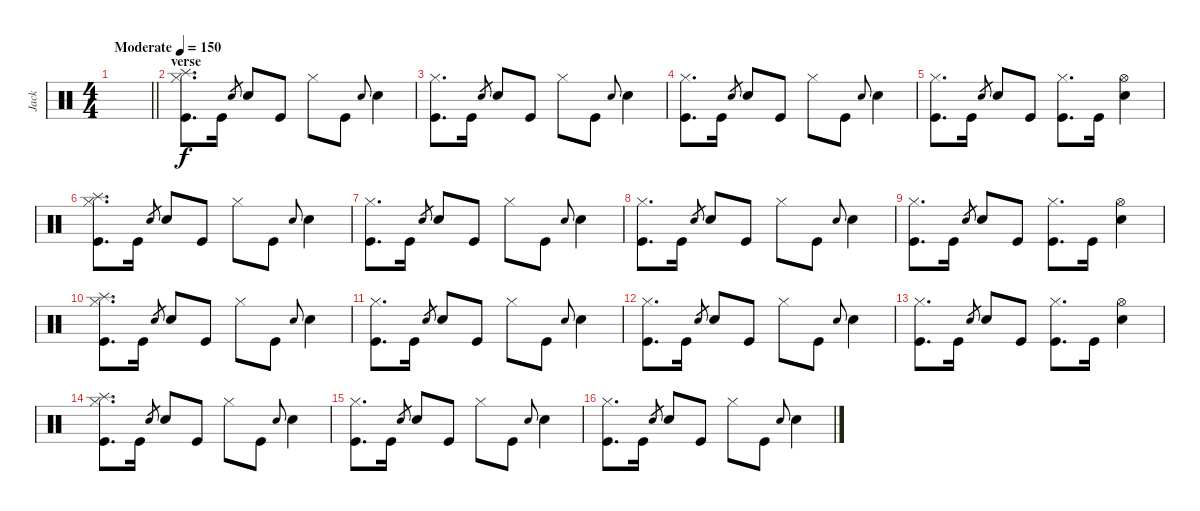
\track ("Jack" "Jack") {instrument percussion}
\staff {score}
\articulation defaults
\ts (4 4)
\tempo (150 "Moderate")
\clef neutral
\barLineRight lightlight
\ks c
|
\section ("" "verse")
("Splash (hit)" "Hi-Hat (closed)" "Kick (hit)").8{d} "Kick (hit)".16 "Electric Snare (hit)".8{gr} "Electric Snare (hit)".8 "Kick (hit)".8 "Hi-Hat (closed)".8 "Kick (hit)".8 "Electric Snare (hit)".8{gr onbeat} "Electric Snare (hit)".4 |
("Hi-Hat (closed)" "Kick (hit)").8{d} "Kick (hit)".16 "Electric Snare (hit)".8{gr} "Electric Snare (hit)".8 "Kick (hit)".8 "Hi-Hat (closed)".8 "Kick (hit)".8 "Electric Snare (hit)".8{gr onbeat} "Electric Snare (hit)".4 |
("Hi-Hat (closed)" "Kick (hit)").8{d} "Kick (hit)".16 "Electric Snare (hit)".8{gr} "Electric Snare (hit)".8 "Kick (hit)".8 "Hi-Hat (closed)".8 "Kick (hit)".8 "Electric Snare (hit)".8{gr onbeat} "Electric Snare (hit)".4 |
("Hi-Hat (closed)" "Kick (hit)").8{d} "Kick (hit)".16 "Electric Snare (hit)".8{gr} "Electric Snare (hit)".8 "Kick (hit)".8 ("Hi-Hat (closed)" "Kick (hit)").8{d} "Kick (hit)".16 ("Hi-Hat (open)" "Electric Snare (hit)").4 |
("Splash (hit)" "Hi-Hat (closed)" "Kick (hit)").8{d} "Kick (hit)".16 "Electric Snare (hit)".8{gr} "Electric Snare (hit)".8 "Kick (hit)".8 "Hi-Hat (closed)".8 "Kick (hit)".8 "Electric Snare (hit)".8{gr onbeat} "Electric Snare (hit)".4 |
("Hi-Hat (closed)" "Kick (hit)").8{d} "Kick (hit)".16 "Electric Snare (hit)".8{gr} "Electric Snare (hit)".8 "Kick (hit)".8 "Hi-Hat (closed)".8 "Kick (hit)".8 "Electric Snare (hit)".8{gr onbeat} "Electric Snare (hit)".4 |
("Hi-Hat (closed)" "Kick (hit)").8{d} "Kick (hit)".16 "Electric Snare (hit)".8{gr} "Electric Snare (hit)".8 "Kick (hit)".8 "Hi-Hat (closed)".8 "Kick (hit)".8 "Electric Snare (hit)".8{gr onbeat} "Electric Snare (hit)".4 |
("Hi-Hat (closed)" "Kick (hit)").8{d} "Kick (hit)".16 "Electric Snare (hit)".8{gr} "Electric Snare (hit)".8 "Kick (hit)".8 ("Hi-Hat (closed)" "Kick (hit)").8{d} "Kick (hit)".16 ("Hi-Hat (open)" "Electric Snare (hit)").4 |
("Splash (hit)" "Hi-Hat (closed)" "Kick (hit)").8{d} "Kick (hit)".16 "Electric Snare (hit)".8{gr} "Electric Snare (hit)".8 "Kick (hit)".8 "Hi-Hat (closed)".8 "Kick (hit)".8 "Electric Snare (hit)".8{gr onbeat} "Electric Snare (hit)".4 |
("Hi-Hat (closed)" "Kick (hit)").8{d} "Kick (hit)".16 "Electric Snare (hit)".8{gr} "Electric Snare (hit)".8 "Kick (hit)".8 "Hi-Hat (closed)".8 "Kick (hit)".8 "Electric Snare (hit)".8{gr onbeat} "Electric Snare (hit)".4 |
("Hi-Hat (closed)" "Kick (hit)").8{d} "Kick (hit)".16 "Electric Snare (hit)".8{gr} "Electric Snare (hit)".8 "Kick (hit)".8 "Hi-Hat (closed)".8 "Kick (hit)".8 "Electric Snare (hit)".8{gr onbeat} "Electric Snare (hit)".4 |
("Hi-Hat (closed)" "Kick (hit)").8{d} "Kick (hit)".16 "Electric Snare (hit)".8{gr} "Electric Snare (hit)".8 "Kick (hit)".8 ("Hi-Hat (closed)" "Kick (hit)").8{d} "Kick (hit)".16 ("Hi-Hat (open)" "Electric Snare (hit)").4 |
("Splash (hit)" "Hi-Hat (closed)" "Kick (hit)").8{d} "Kick (hit)".16 "Electric Snare (hit)".8{gr} "Electric Snare (hit)".8 "Kick (hit)".8 "Hi-Hat (closed)".8 "Kick (hit)".8 "Electric Snare (hit)".8{gr onbeat} "Electric Snare (hit)".4 |
("Hi-Hat (closed)" "Kick (hit)").8{d} "Kick (hit)".16 "Electric Snare (hit)".8{gr} "Electric Snare (hit)".8 "Kick (hit)".8 "Hi-Hat (closed)".8 "Kick (hit)".8 "Electric Snare (hit)".8{gr onbeat} "Electric Snare (hit)".4 |
("Hi-Hat (closed)" "Kick (hit)").8{d} "Kick (hit)".16 "Electric Snare (hit)".8{gr} "Electric Snare (hit)".8 "Kick (hit)".8 "Hi-Hat (closed)".8 "Kick (hit)".8 "Electric Snare (hit)".8{gr onbeat} "Electric Snare (hit)".4
